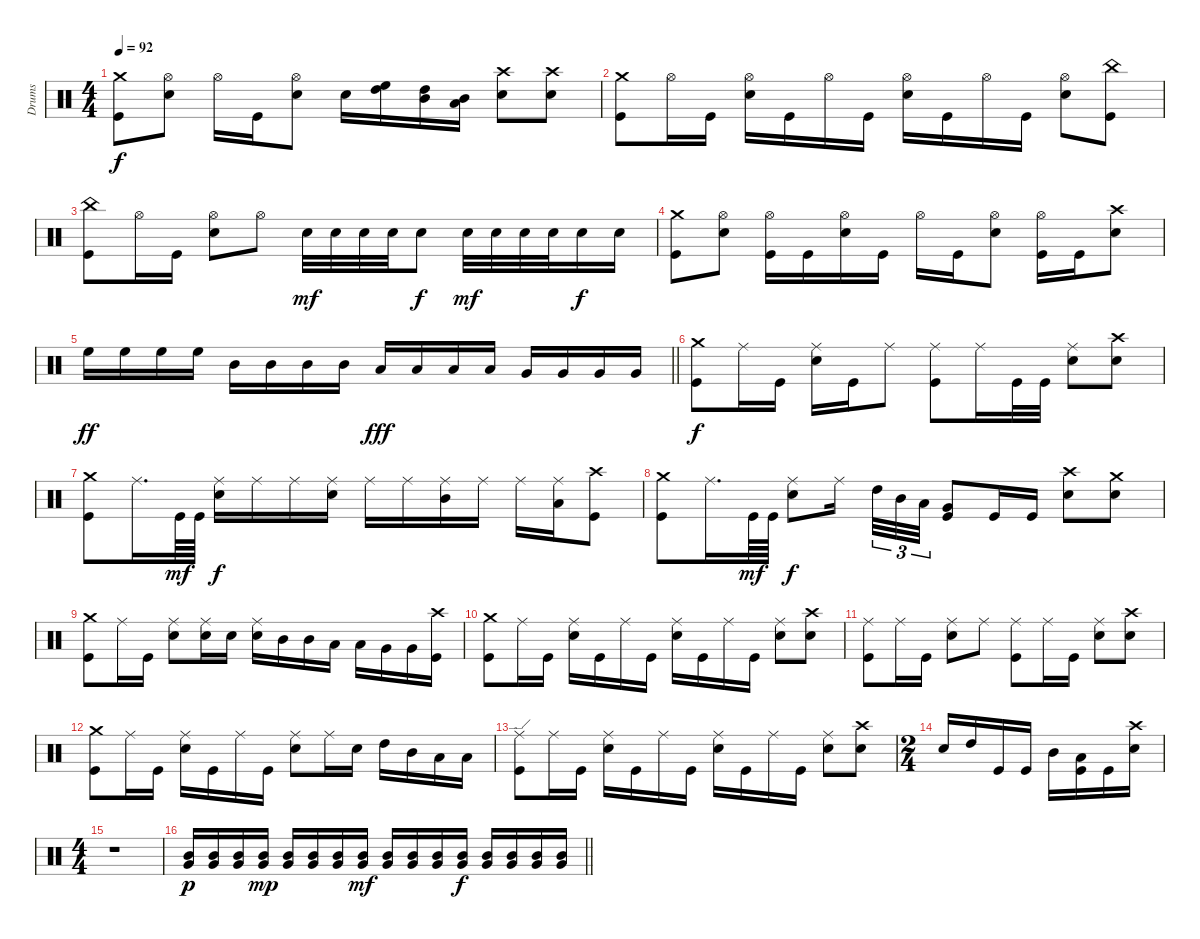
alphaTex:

\track ("Drums" "Drums") {instrument percussion}
\staff {score}
\articulation defaults
\ts (4 4)
\tempo 92
\clef neutral
\ks c
("Crash medium (hit)" "Kick (hit)").8{dy f} ("Hi-Hat (open)" "Snare (hit) 2").8 "Hi-Hat (open)".16 "Kick (hit)".16 ("Hi-Hat (open)" "Snare (hit) 2").8 "Snare (hit) 2".16 ("High Floor Tom (hit)" "High Tom (hit)").16 ("High Tom (hit)" "Mid Tom (hit)").16 ("Mid Tom (hit)" "Low Tom (hit)").16 ("Crash high (hit)" "Snare (hit) 2").8 ("Crash high (hit)" "Snare (hit) 2").8 |
("Crash medium (hit)" "Kick (hit)").8 "Hi-Hat (open)".16 "Kick (hit)".16 ("Hi-Hat (open)" "Snare (hit) 2").16 "Kick (hit)".16 "Hi-Hat (open)".16 "Kick (hit)".16 ("Hi-Hat (open)" "Snare (hit) 2").16 "Kick (hit)".16 "Hi-Hat (open)".16 "Kick (hit)".16 ("Hi-Hat (open)" "Snare (hit) 2").8 ("China (hit)" "Kick (hit)").8 |
("China (hit)" "Kick (hit)").8 "Hi-Hat (open)".16 "Kick (hit)".16 ("Hi-Hat (open)" "Snare (hit) 2").8 "Hi-Hat (open)".8 "Snare (hit) 2".32{dy mf} "Snare (hit) 2".32 "Snare (hit) 2".32 "Snare (hit) 2".32 "Snare (hit) 2".8{dy f} "Snare (hit) 2".32{dy mf} "Snare (hit) 2".32 "Snare (hit) 2".32 "Snare (hit) 2".32 "Snare (hit) 2".16{dy f} "Snare (hit) 2".16 |
("Crash medium (hit)" "Kick (hit)").8 ("Hi-Hat (open)" "Snare (hit) 2").8 ("Hi-Hat (open)" "Kick (hit)").16 "Kick (hit)".16 ("Hi-Hat (open)" "Snare (hit) 2").16 "Kick (hit)".16 "Hi-Hat (open)".16 "Kick (hit)".16 ("Hi-Hat (open)" "Snare (hit) 2").8 ("Hi-Hat (open)" "Kick (hit)").16 "Kick (hit)".16 ("Crash high (hit)" "Snare (hit) 2").8 |
\barLineRight lightlight "High Floor Tom (hit)".16{dy ff} "High Floor Tom (hit)".16 "High Floor Tom (hit)".16 "High Floor Tom (hit)".16 "Mid Tom (hit)".16 "Mid Tom (hit)".16 "Mid Tom (hit)".16 "Mid Tom (hit)".16 "Low Tom (hit)".16{dy fff} "Low Tom (hit)".16 "Low Tom (hit)".16 "Low Tom (hit)".16 "Very Low Tom (hit)".16 "Very Low Tom (hit)".16 "Very Low Tom (hit)".16 "Very Low Tom (hit)".16
|
("Crash medium (hit)" "Kick (hit)").8{dy f} "Ride (middle)".16 "Kick (hit)".16 ("Ride (middle)" "Snare (hit) 2").16 "Kick (hit)".16 "Ride (middle)".8 ("Ride (middle)" "Kick (hit)").8 "Ride (middle)".16 "Kick (hit)".32 "Kick (hit)".32 ("Ride (middle)" "Snare (hit) 2").8 ("Crash high (hit)" "Snare (hit) 2").8 |
("Crash medium (hit)" "Kick (hit)").8 "Ride (middle)".16{d} "Kick (hit)".64{dy mf} "Kick (hit)".64 ("Ride (middle)" "Snare (hit) 2").16{dy f} "Ride (middle)".16 "Ride (middle)".16 ("Ride (middle)" "Snare (hit) 2").16 "Ride (middle)".16 "Ride (middle)".16 ("Ride (middle)" "Mid Tom (hit)").16 "Ride (middle)".16 "Ride (middle)".16 ("Ride (middle)" "Low Tom (hit)").16 ("Crash high (hit)" "Kick (hit)").8 |
("Crash medium (hit)" "Kick (hit)").8 "Ride (middle)".16{d} "Kick (hit)".64{dy mf} "Kick (hit)".64 ("Ride (middle)" "Snare (hit) 2").8{dy f} "Ride (middle)".16 "High Tom (hit)".32{tu (3 2)} "Mid Tom (hit)".32{tu (3 2)} "Low Tom (hit)".32{tu (3 2)} ("Very Low Tom (hit)" "Kick (hit)").8 "Kick (hit)".16 "Kick (hit)".16 ("Crash high (hit)" "Snare (hit) 2").8 ("Crash medium (hit)" "Snare (hit) 2").8 |
("Crash medium (hit)" "Kick (hit)").8 "Ride (middle)".16 "Kick (hit)".16 ("Ride (middle)" "Snare (hit) 2").8 ("Ride (middle)" "Snare (hit) 2").16 "Snare (hit) 2".16 ("Ride (middle)" "Snare (hit) 2").16 "Mid Tom (hit)".16 "Mid Tom (hit)".16 "Low Tom (hit)".16 "Low Tom (hit)".16 "Very Low Tom (hit)".16 "Very Low Tom (hit)".16 ("Crash high (hit)" "Kick (hit)").16 |
("Crash medium (hit)" "Kick (hit)").8 "Ride (middle)".16 "Kick (hit)".16 ("Ride (middle)" "Snare (hit) 2").16 "Kick (hit)".16 "Ride (middle)".16 "Kick (hit)".16 ("Ride (middle)" "Snare (hit) 2").16 "Kick (hit)".16 "Ride (middle)".16 "Kick (hit)".16 ("Ride (middle)" "Snare (hit) 2").8 ("Crash high (hit)" "Snare (hit) 2").8 |
("Ride (middle)" "Kick (hit)").8 "Ride (middle)".16 "Kick (hit)".16 ("Ride (middle)" "Snare (hit) 2").8 "Ride (middle)".8 ("Ride (middle)" "Kick (hit)").8 "Ride (middle)".16 "Kick (hit)".16 ("Ride (middle)" "Snare (hit) 2").8 ("Crash high (hit)" "Snare (hit) 2").8 |
("Crash medium (hit)" "Kick (hit)").8 "Ride (middle)".16 "Kick (hit)".16 ("Ride (middle)" "Snare (hit) 2").16 "Kick (hit)".16 "Ride (middle)".16 "Kick (hit)".16 ("Ride (middle)" "Snare (hit) 2").8 "Ride (middle)".16 "Snare (hit) 2".16 "High Tom (hit)".16 "Mid Tom (hit)".16 "Low Tom (hit)".16 "Low Tom (hit)".16 |
("Ride (edge)" "Kick (hit)").8 "Ride (middle)".16 "Kick (hit)".16 ("Ride (middle)" "Snare (hit) 2").16 "Kick (hit)".16 "Ride (middle)".16 "Kick (hit)".16 ("Ride (middle)" "Snare (hit) 2").16 "Kick (hit)".16 "Ride (middle)".16 "Kick (hit)".16 ("Ride (middle)" "Snare (hit) 2").8 ("Crash high (hit)" "Snare (hit) 2").8 |
\ts (2 4)
\beaming (8 2 2)
"Snare (hit) 2".16 "High Tom (hit)".16 "Kick (hit)".16 "Kick (hit)".16 "Mid Tom (hit)".16 ("Low Tom (hit)" "Kick (hit)").16 "Kick (hit)".16 ("Crash high (hit)" "Snare (hit) 2").16 |
\ts (4 4)
\beaming (8 2 2 2 2)
r.1 |
\barLineRight lightlight
("Mid Tom (hit)" "Very Low Tom (hit)").16{dy p} ("Mid Tom (hit)" "Very Low Tom (hit)").16 ("Mid Tom (hit)" "Very Low Tom (hit)").16 ("Mid Tom (hit)" "Very Low Tom (hit)").16{dy mp} ("Mid Tom (hit)" "Very Low Tom (hit)").16 ("Mid Tom (hit)" "Very Low Tom (hit)").16 ("Mid Tom (hit)" "Very Low Tom (hit)").16 ("Mid Tom (hit)" "Very Low Tom (hit)").16{dy mf} ("Mid Tom (hit)" "Very Low Tom (hit)").16 ("Mid Tom (hit)" "Very Low Tom (hit)").16 ("Mid Tom (hit)" "Very Low Tom (hit)").16 ("Mid Tom (hit)" "Very Low Tom (hit)").16{dy f} ("Mid Tom (hit)" "Very Low Tom (hit)").16 ("Mid Tom (hit)" "Very Low Tom (hit)").16 ("Mid Tom (hit)" "Very Low Tom (hit)").16 ("Mid Tom (hit)" "Very Low Tom (hit)").16
